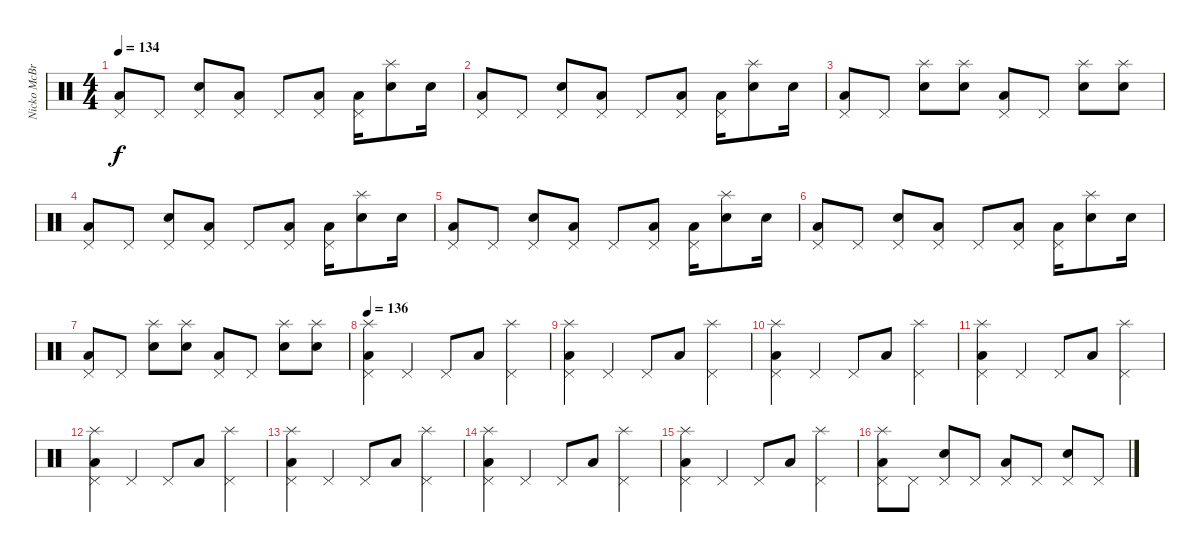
\track ("Nicko McBrian" "Nicko McBr") {instrument percussion}
\staff {score}
\articulation defaults
\ts (4 4)
\tempo 134
\clef neutral
\ks c
("Low Floor Tom (hit)" "Pedal Hi-Hat (hit)").8{dy f} "Pedal Hi-Hat (hit)".8 ("Electric Snare (hit)" "Pedal Hi-Hat (hit)").8 ("Low Floor Tom (hit)" "Pedal Hi-Hat (hit)").8 "Pedal Hi-Hat (hit)".8 ("Low Floor Tom (hit)" "Pedal Hi-Hat (hit)").8 ("Low Floor Tom (hit)" "Pedal Hi-Hat (hit)").16 ("Electric Snare (hit)" "Splash (hit)").8 "Electric Snare (hit)".16 |
("Low Floor Tom (hit)" "Pedal Hi-Hat (hit)").8 "Pedal Hi-Hat (hit)".8 ("Electric Snare (hit)" "Pedal Hi-Hat (hit)").8 ("Low Floor Tom (hit)" "Pedal Hi-Hat (hit)").8 "Pedal Hi-Hat (hit)".8 ("Low Floor Tom (hit)" "Pedal Hi-Hat (hit)").8 ("Low Floor Tom (hit)" "Pedal Hi-Hat (hit)").16 ("Electric Snare (hit)" "Splash (hit)").8 "Electric Snare (hit)".16 |
("Low Floor Tom (hit)" "Pedal Hi-Hat (hit)").8 "Pedal Hi-Hat (hit)".8 ("Electric Snare (hit)" "Splash (hit)").8 ("Electric Snare (hit)" "Splash (hit)").8 ("Low Floor Tom (hit)" "Pedal Hi-Hat (hit)").8 "Pedal Hi-Hat (hit)".8 ("Electric Snare (hit)" "Splash (hit)").8 ("Electric Snare (hit)" "Splash (hit)").8 |
("Low Floor Tom (hit)" "Pedal Hi-Hat (hit)").8 "Pedal Hi-Hat (hit)".8 ("Electric Snare (hit)" "Pedal Hi-Hat (hit)").8 ("Low Floor Tom (hit)" "Pedal Hi-Hat (hit)").8 "Pedal Hi-Hat (hit)".8 ("Low Floor Tom (hit)" "Pedal Hi-Hat (hit)").8 ("Low Floor Tom (hit)" "Pedal Hi-Hat (hit)").16 ("Electric Snare (hit)" "Splash (hit)").8 "Electric Snare (hit)".16 |
("Low Floor Tom (hit)" "Pedal Hi-Hat (hit)").8 "Pedal Hi-Hat (hit)".8 ("Electric Snare (hit)" "Pedal Hi-Hat (hit)").8 ("Low Floor Tom (hit)" "Pedal Hi-Hat (hit)").8 "Pedal Hi-Hat (hit)".8 ("Low Floor Tom (hit)" "Pedal Hi-Hat (hit)").8 ("Low Floor Tom (hit)" "Pedal Hi-Hat (hit)").16 ("Electric Snare (hit)" "Splash (hit)").8 "Electric Snare (hit)".16 |
("Low Floor Tom (hit)" "Pedal Hi-Hat (hit)").8 "Pedal Hi-Hat (hit)".8 ("Electric Snare (hit)" "Pedal Hi-Hat (hit)").8 ("Low Floor Tom (hit)" "Pedal Hi-Hat (hit)").8 "Pedal Hi-Hat (hit)".8 ("Low Floor Tom (hit)" "Pedal Hi-Hat (hit)").8 ("Low Floor Tom (hit)" "Pedal Hi-Hat (hit)").16 ("Electric Snare (hit)" "Splash (hit)").8 "Electric Snare (hit)".16 |
("Low Floor Tom (hit)" "Pedal Hi-Hat (hit)").8 "Pedal Hi-Hat (hit)".8 ("Electric Snare (hit)" "Splash (hit)").8 ("Electric Snare (hit)" "Splash (hit)").8 ("Low Floor Tom (hit)" "Pedal Hi-Hat (hit)").8 "Pedal Hi-Hat (hit)".8 ("Electric Snare (hit)" "Splash (hit)").8 ("Electric Snare (hit)" "Splash (hit)").8 |
\tempo 136
("Low Floor Tom (hit)" "Pedal Hi-Hat (hit)" "Splash (hit)").4 "Pedal Hi-Hat (hit)".4 "Pedal Hi-Hat (hit)".8 "Low Floor Tom (hit)".8 ("Pedal Hi-Hat (hit)" "Splash (hit)").4 |
("Low Floor Tom (hit)" "Pedal Hi-Hat (hit)" "Splash (hit)").4 "Pedal Hi-Hat (hit)".4 "Pedal Hi-Hat (hit)".8 "Low Floor Tom (hit)".8 ("Pedal Hi-Hat (hit)" "Splash (hit)").4 |
("Low Floor Tom (hit)" "Pedal Hi-Hat (hit)" "Splash (hit)").4 "Pedal Hi-Hat (hit)".4 "Pedal Hi-Hat (hit)".8 "Low Floor Tom (hit)".8 ("Pedal Hi-Hat (hit)" "Splash (hit)").4 |
("Low Floor Tom (hit)" "Pedal Hi-Hat (hit)" "Splash (hit)").4 "Pedal Hi-Hat (hit)".4 "Pedal Hi-Hat (hit)".8 "Low Floor Tom (hit)".8 ("Pedal Hi-Hat (hit)" "Splash (hit)").4 |
("Low Floor Tom (hit)" "Pedal Hi-Hat (hit)" "Splash (hit)").4 "Pedal Hi-Hat (hit)".4 "Pedal Hi-Hat (hit)".8 "Low Floor Tom (hit)".8 ("Pedal Hi-Hat (hit)" "Splash (hit)").4 |
("Low Floor Tom (hit)" "Pedal Hi-Hat (hit)" "Splash (hit)").4 "Pedal Hi-Hat (hit)".4 "Pedal Hi-Hat (hit)".8 "Low Floor Tom (hit)".8 ("Pedal Hi-Hat (hit)" "Splash (hit)").4 |
("Low Floor Tom (hit)" "Pedal Hi-Hat (hit)" "Splash (hit)").4 "Pedal Hi-Hat (hit)".4 "Pedal Hi-Hat (hit)".8 "Low Floor Tom (hit)".8 ("Pedal Hi-Hat (hit)" "Splash (hit)").4 |
("Low Floor Tom (hit)" "Pedal Hi-Hat (hit)" "Splash (hit)").4 "Pedal Hi-Hat (hit)".4 "Pedal Hi-Hat (hit)".8 "Low Floor Tom (hit)".8 ("Pedal Hi-Hat (hit)" "Splash (hit)").4 |
("Low Floor Tom (hit)" "Pedal Hi-Hat (hit)" "Splash (hit)").8 "Pedal Hi-Hat (hit)".8 ("Electric Snare (hit)" "Pedal Hi-Hat (hit)").8 "Pedal Hi-Hat (hit)".8 ("Low Floor Tom (hit)" "Pedal Hi-Hat (hit)").8 "Pedal Hi-Hat (hit)".8 ("Electric Snare (hit)" "Pedal Hi-Hat (hit)").8 "Pedal Hi-Hat (hit)".8
